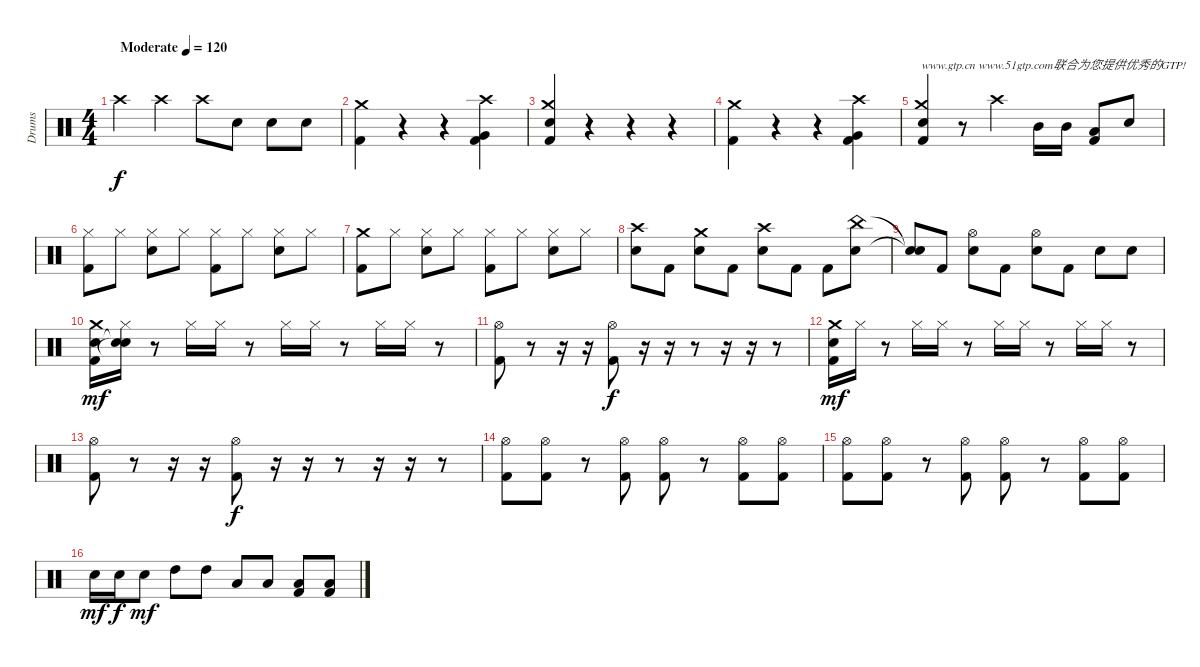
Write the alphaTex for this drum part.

\track ("Drums" "Drums") {instrument percussion}
\staff {score}
\articulation defaults
\ts (4 4)
\tempo (120 "Moderate")
\clef neutral
\ks c "Crash high (hit)".4{dy f} "Crash high (hit)".4 "Crash high (hit)".8 "Snare (hit) 2".8 "Snare (hit) 2".8 "Snare (hit) 2".8
|
("Crash medium (hit)" "Kick (hit) 2").4 r.4 r.4 ("Crash high (hit)" "Very Low Tom (hit)" "Kick (hit) 2").4 |
("Crash medium (hit)" "Snare (hit) 2" "Kick (hit) 2").4 r.4 r.4 r.4 |
("Crash medium (hit)" "Kick (hit) 2").4 r.4 r.4 ("Crash high (hit)" "Very Low Tom (hit)" "Kick (hit) 2").4 |
("Crash medium (hit)" "Snare (hit) 2" "Kick (hit) 2").4{txt "www.gtp.cn www.51gtp.com联合为您提供优秀的GTP!"} r.8 "Crash high (hit)".4 "Mid Tom (hit)".16 "Mid Tom (hit)".16 ("Low Tom (hit)" "Kick (hit) 2").8 "Snare (hit) 2".8 |
("Hi-Hat (closed)" "Kick (hit) 2").8 "Hi-Hat (closed)".8 ("Hi-Hat (closed)" "Snare (hit) 2").8 "Hi-Hat (closed)".8 ("Hi-Hat (closed)" "Kick (hit) 2").8 "Hi-Hat (closed)".8 ("Hi-Hat (closed)" "Snare (hit) 2").8 "Hi-Hat (closed)".8 |
("Crash medium (hit)" "Kick (hit) 2").8 "Hi-Hat (closed)".8 ("Hi-Hat (closed)" "Snare (hit) 2").8 "Hi-Hat (closed)".8 ("Hi-Hat (closed)" "Kick (hit) 2").8 "Hi-Hat (closed)".8 ("Hi-Hat (closed)" "Snare (hit) 2").8 "Hi-Hat (closed)".8 |
("Crash high (hit)" "Snare (hit) 2").8 "Kick (hit) 2".8 ("Crash medium (hit)" "Snare (hit) 2").8 "Kick (hit) 2".8 ("Crash high (hit)" "Snare (hit) 2").8 "Kick (hit) 2".8 "Kick (hit) 2".8 ("China (hit)" "Snare (hit) 2").8 |
("Snare (hit)"{t} "Snare (hit)"{t}).8 "Kick (hit) 2".8 ("Hi-Hat (open)" "Snare (hit) 2").8 "Kick (hit) 2".8 ("Hi-Hat (open)" "Snare (hit) 2").8 "Kick (hit) 2".8 "Snare (hit) 2".8 "Snare (hit) 2".8 |
("Crash medium (hit)" "Snare (hit) 2" "Kick (hit) 2").16{dy mf} ("Hi-Hat (closed)" "Snare (hit)"{t} "Snare (hit)"{t}).16 r.8 "Hi-Hat (closed)".16 "Hi-Hat (closed)".16 r.8 "Hi-Hat (closed)".16 "Hi-Hat (closed)".16 r.8 "Hi-Hat (closed)".16 "Hi-Hat (closed)".16 r.8 |
("Hi-Hat (open)" "Kick (hit) 2").8 r.8 r.16 r.16 ("Hi-Hat (open)" "Kick (hit) 2").8{dy f} r.16 r.16 r.8 r.16 r.16 r.8 |
("Crash medium (hit)" "Snare (hit) 2" "Kick (hit) 2").16{dy mf} "Hi-Hat (closed)".16 r.8 "Hi-Hat (closed)".16 "Hi-Hat (closed)".16 r.8 "Hi-Hat (closed)".16 "Hi-Hat (closed)".16 r.8 "Hi-Hat (closed)".16 "Hi-Hat (closed)".16 r.8 |
("Hi-Hat (open)" "Kick (hit) 2").8 r.8 r.16 r.16 ("Hi-Hat (open)" "Kick (hit) 2").8{dy f} r.16 r.16 r.8 r.16 r.16 r.8 |
("Hi-Hat (open)" "Kick (hit) 2").8 ("Hi-Hat (open)" "Kick (hit) 2").8 r.8 ("Hi-Hat (open)" "Kick (hit) 2").8 ("Hi-Hat (open)" "Kick (hit) 2").8 r.8 ("Hi-Hat (open)" "Kick (hit) 2").8 ("Hi-Hat (open)" "Kick (hit) 2").8 |
("Hi-Hat (open)" "Kick (hit) 2").8 ("Hi-Hat (open)" "Kick (hit) 2").8 r.8 ("Hi-Hat (open)" "Kick (hit) 2").8 ("Hi-Hat (open)" "Kick (hit) 2").8 r.8 ("Hi-Hat (open)" "Kick (hit) 2").8 ("Hi-Hat (open)" "Kick (hit) 2").8 |
"Snare (hit) 2".16{dy mf} "Snare (hit) 2".16{dy f} "Snare (hit) 2".8{dy mf} "High Tom (hit)".8 "High Tom (hit)".8 "Low Tom (hit)".8 "Low Tom (hit)".8 ("Low Floor Tom (hit)" "Kick (hit) 2").8 ("Low Floor Tom (hit)" "Kick (hit) 2").8
